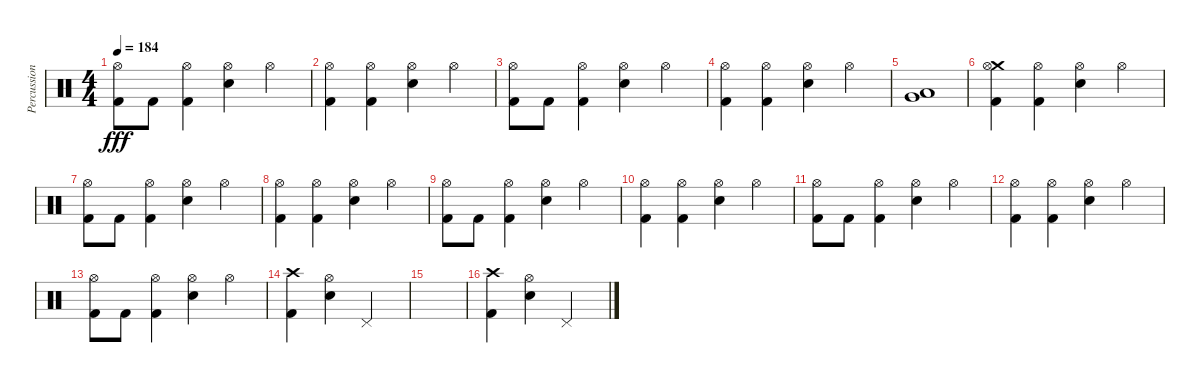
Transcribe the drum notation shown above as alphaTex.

\track ("Percussion" "Percussion") {instrument percussion}
\staff {score}
\articulation defaults
\ts (4 4)
\tempo 184
\clef neutral
\ks c
("Hi-Hat (open)" "Kick (hit) 2").8{dy fff} "Kick (hit) 2".8 ("Hi-Hat (open)" "Kick (hit) 2").4 ("Hi-Hat (open)" "Snare (hit) 2").4 "Hi-Hat (open)".4 |
("Hi-Hat (open)" "Kick (hit) 2").4 ("Hi-Hat (open)" "Kick (hit) 2").4 ("Hi-Hat (open)" "Snare (hit) 2").4 "Hi-Hat (open)".4 |
("Hi-Hat (open)" "Kick (hit) 2").8 "Kick (hit) 2".8 ("Hi-Hat (open)" "Kick (hit) 2").4 ("Hi-Hat (open)" "Snare (hit) 2").4 "Hi-Hat (open)".4 |
("Hi-Hat (open)" "Kick (hit) 2").4 ("Hi-Hat (open)" "Kick (hit) 2").4 ("Hi-Hat (open)" "Snare (hit) 2").4 "Hi-Hat (open)".4 |
("Very Low Tom (hit)" "Low Floor Tom (hit)").1 |
("Crash medium (hit)" "Hi-Hat (open)" "Kick (hit) 2").4 ("Hi-Hat (open)" "Kick (hit) 2").4 ("Hi-Hat (open)" "Snare (hit) 2").4 "Hi-Hat (open)".4 |
("Hi-Hat (open)" "Kick (hit) 2").8 "Kick (hit) 2".8 ("Hi-Hat (open)" "Kick (hit) 2").4 ("Hi-Hat (open)" "Snare (hit) 2").4 "Hi-Hat (open)".4 |
("Hi-Hat (open)" "Kick (hit) 2").4 ("Hi-Hat (open)" "Kick (hit) 2").4 ("Hi-Hat (open)" "Snare (hit) 2").4 "Hi-Hat (open)".4 |
("Hi-Hat (open)" "Kick (hit) 2").8 "Kick (hit) 2".8 ("Hi-Hat (open)" "Kick (hit) 2").4 ("Hi-Hat (open)" "Snare (hit) 2").4 "Hi-Hat (open)".4 |
("Hi-Hat (open)" "Kick (hit) 2").4 ("Hi-Hat (open)" "Kick (hit) 2").4 ("Hi-Hat (open)" "Snare (hit) 2").4 "Hi-Hat (open)".4 |
("Hi-Hat (open)" "Kick (hit) 2").8 "Kick (hit) 2".8 ("Hi-Hat (open)" "Kick (hit) 2").4 ("Hi-Hat (open)" "Snare (hit) 2").4 "Hi-Hat (open)".4 |
("Hi-Hat (open)" "Kick (hit) 2").4 ("Hi-Hat (open)" "Kick (hit) 2").4 ("Hi-Hat (open)" "Snare (hit) 2").4 "Hi-Hat (open)".4 |
("Hi-Hat (open)" "Kick (hit) 2").8 "Kick (hit) 2".8 ("Hi-Hat (open)" "Kick (hit) 2").4 ("Hi-Hat (open)" "Snare (hit) 2").4 "Hi-Hat (open)".4 |
("Crash high (hit)" "Kick (hit) 2").4 ("Hi-Hat (open)" "Snare (hit) 2").4 "Pedal Hi-Hat (hit)".2 |
|
("Crash high (hit)" "Kick (hit) 2").4 ("Hi-Hat (open)" "Snare (hit) 2").4 "Pedal Hi-Hat (hit)".2
